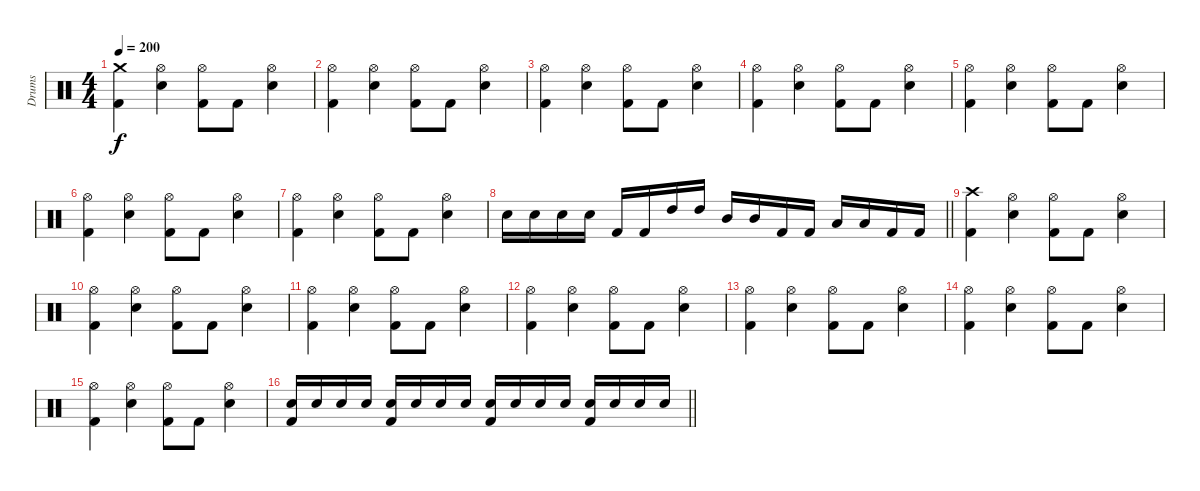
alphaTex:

\track ("Drums" "Drums") {instrument percussion}
\staff {score}
\articulation defaults
\ts (4 4)
\section ("" "")
\tempo 200
\clef neutral
\ks c
("Kick (hit) 2" "Crash medium (hit)").4{dy f} ("Snare (hit) 2" "Hi-Hat (open)").4 ("Kick (hit) 2" "Hi-Hat (open)").8 "Kick (hit) 2".8 ("Snare (hit) 2" "Hi-Hat (open)").4 |
("Kick (hit) 2" "Hi-Hat (open)").4 ("Snare (hit) 2" "Hi-Hat (open)").4 ("Kick (hit) 2" "Hi-Hat (open)").8 "Kick (hit) 2".8 ("Snare (hit) 2" "Hi-Hat (open)").4 |
("Kick (hit) 2" "Hi-Hat (open)").4 ("Snare (hit) 2" "Hi-Hat (open)").4 ("Kick (hit) 2" "Hi-Hat (open)").8 "Kick (hit) 2".8 ("Snare (hit) 2" "Hi-Hat (open)").4 |
("Kick (hit) 2" "Hi-Hat (open)").4 ("Snare (hit) 2" "Hi-Hat (open)").4 ("Kick (hit) 2" "Hi-Hat (open)").8 "Kick (hit) 2".8 ("Snare (hit) 2" "Hi-Hat (open)").4 |
("Kick (hit) 2" "Hi-Hat (open)").4 ("Snare (hit) 2" "Hi-Hat (open)").4 ("Kick (hit) 2" "Hi-Hat (open)").8 "Kick (hit) 2".8 ("Snare (hit) 2" "Hi-Hat (open)").4 |
("Kick (hit) 2" "Hi-Hat (open)").4 ("Snare (hit) 2" "Hi-Hat (open)").4 ("Kick (hit) 2" "Hi-Hat (open)").8 "Kick (hit) 2".8 ("Snare (hit) 2" "Hi-Hat (open)").4 |
("Kick (hit) 2" "Hi-Hat (open)").4 ("Snare (hit) 2" "Hi-Hat (open)").4 ("Kick (hit) 2" "Hi-Hat (open)").8 "Kick (hit) 2".8 ("Snare (hit) 2" "Hi-Hat (open)").4 |
\barLineRight lightlight "Snare (hit) 2".16 "Snare (hit) 2".16 "Snare (hit) 2".16 "Snare (hit) 2".16 "Kick (hit) 2".16 "Kick (hit) 2".16 "High Tom (hit)".16 "High Tom (hit)".16 "Mid Tom (hit)".16 "Mid Tom (hit)".16 "Kick (hit) 2".16 "Kick (hit) 2".16 "Low Tom (hit)".16 "Low Tom (hit)".16 "Kick (hit) 2".16 "Kick (hit) 2".16
|
\section ("" "")
("Kick (hit) 2" "Crash high (hit)").4 ("Snare (hit) 2" "Hi-Hat (open)").4 ("Kick (hit) 2" "Hi-Hat (open)").8 "Kick (hit) 2".8 ("Snare (hit) 2" "Hi-Hat (open)").4 |
("Kick (hit) 2" "Hi-Hat (open)").4 ("Snare (hit) 2" "Hi-Hat (open)").4 ("Kick (hit) 2" "Hi-Hat (open)").8 "Kick (hit) 2".8 ("Snare (hit) 2" "Hi-Hat (open)").4 |
("Kick (hit) 2" "Hi-Hat (open)").4 ("Snare (hit) 2" "Hi-Hat (open)").4 ("Kick (hit) 2" "Hi-Hat (open)").8 "Kick (hit) 2".8 ("Snare (hit) 2" "Hi-Hat (open)").4 |
("Kick (hit) 2" "Hi-Hat (open)").4 ("Snare (hit) 2" "Hi-Hat (open)").4 ("Kick (hit) 2" "Hi-Hat (open)").8 "Kick (hit) 2".8 ("Snare (hit) 2" "Hi-Hat (open)").4 |
("Kick (hit) 2" "Hi-Hat (open)").4 ("Snare (hit) 2" "Hi-Hat (open)").4 ("Kick (hit) 2" "Hi-Hat (open)").8 "Kick (hit) 2".8 ("Snare (hit) 2" "Hi-Hat (open)").4 |
("Kick (hit) 2" "Hi-Hat (open)").4 ("Snare (hit) 2" "Hi-Hat (open)").4 ("Kick (hit) 2" "Hi-Hat (open)").8 "Kick (hit) 2".8 ("Snare (hit) 2" "Hi-Hat (open)").4 |
("Kick (hit) 2" "Hi-Hat (open)").4 ("Snare (hit) 2" "Hi-Hat (open)").4 ("Kick (hit) 2" "Hi-Hat (open)").8 "Kick (hit) 2".8 ("Snare (hit) 2" "Hi-Hat (open)").4 |
\barLineRight lightlight
("Kick (hit) 2" "Snare (hit) 2").16 "Snare (hit) 2".16 "Snare (hit) 2".16 "Snare (hit) 2".16 ("Kick (hit) 2" "Snare (hit) 2").16 "Snare (hit) 2".16 "Snare (hit) 2".16 "Snare (hit) 2".16 ("Kick (hit) 2" "Snare (hit) 2").16 "Snare (hit) 2".16 "Snare (hit) 2".16 "Snare (hit) 2".16 ("Kick (hit) 2" "Snare (hit) 2").16 "Snare (hit) 2".16 "Snare (hit) 2".16 "Snare (hit) 2".16
